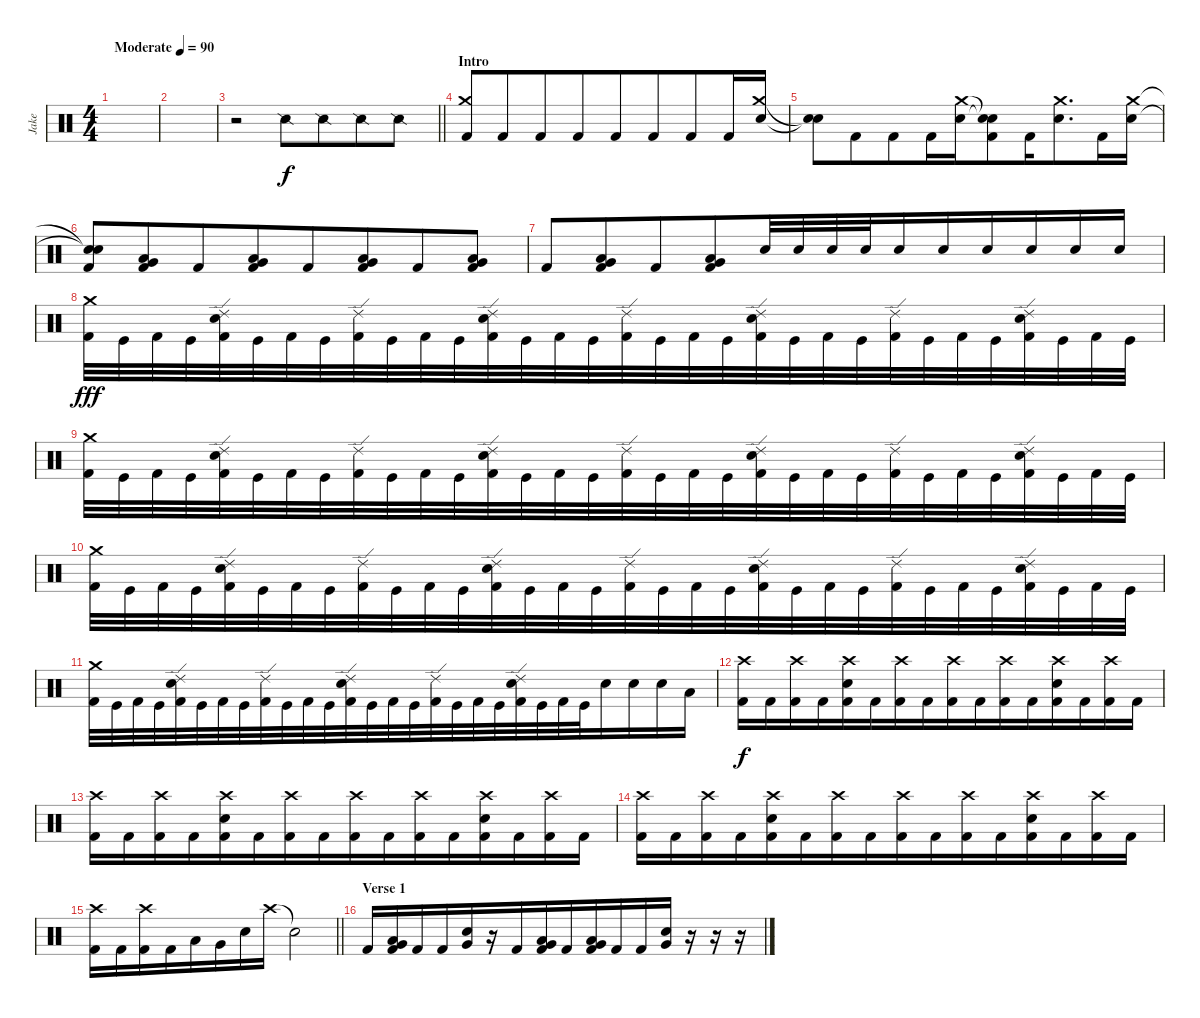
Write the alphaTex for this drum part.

\track ("Jake" "Jake") {instrument percussion}
\staff {score}
\articulation defaults
\ts (4 4)
\tempo (90 "Moderate")
\clef neutral
\ks c
|
|
\barLineRight lightlight
r.2 "Snare (side stick) 2".8{beam merge} "Snare (side stick) 2".8{beam merge} "Snare (side stick) 2".8{beam merge} "Snare (side stick) 2".8 |
\section ("" "Intro")
("Crash medium (hit)" "Kick (hit) 2").8{beam merge} "Kick (hit) 2".8{beam merge} "Kick (hit) 2".8{beam Up beam merge} "Kick (hit) 2".8{beam Up beam merge} "Kick (hit) 2".8{beam Up beam merge} "Kick (hit) 2".8{beam Up beam merge} "Kick (hit) 2".8{beam merge} "Kick (hit) 2".16{beam merge} ("Crash medium (hit)" "Electric Snare (hit)").16 |
("Snare (hit)"{t} "Snare (hit)"{t}).8{beam merge} "Kick (hit) 2".8{beam merge} "Kick (hit) 2".8{beam merge} "Kick (hit) 2".16{beam merge} ("Crash medium (hit)" "Electric Snare (hit)").16{beam merge} ("Snare (hit)"{t} "Snare (hit)"{t} "Kick (hit) 2").8{beam merge} "Kick (hit) 2".16{beam merge} ("Crash medium (hit)" "Electric Snare (hit)").8{d beam merge} "Kick (hit) 2".16{beam merge} ("Crash medium (hit)" "Electric Snare (hit)").16 |
("Snare (hit)"{t} "Snare (hit)"{t} "Kick (hit) 2").8{beam merge} ("Low Floor Tom (hit)" "Very Low Tom (hit)" "Kick (hit) 2").8{beam merge} "Kick (hit) 2".8{beam Up beam merge} ("Low Floor Tom (hit)" "Very Low Tom (hit)" "Kick (hit) 2").8{beam Up beam merge} "Kick (hit) 2".8{beam Up beam merge} ("Low Floor Tom (hit)" "Very Low Tom (hit)" "Kick (hit) 2").8{beam Up beam merge} "Kick (hit) 2".8{beam Up beam merge} ("Low Floor Tom (hit)" "Very Low Tom (hit)" "Kick (hit) 2").8{beam Up} |
"Kick (hit) 2".8{beam Up beam merge} ("Low Floor Tom (hit)" "Very Low Tom (hit)" "Kick (hit) 2").8{beam Up beam merge} "Kick (hit) 2".8{beam Up beam merge} ("Low Floor Tom (hit)" "Very Low Tom (hit)" "Kick (hit) 2").8{beam Up beam merge} "Electric Snare (hit)".32{beam merge} "Electric Snare (hit)".32{beam merge} "Electric Snare (hit)".32{beam merge} "Electric Snare (hit)".32{beam merge} "Electric Snare (hit)".16{beam merge} "Electric Snare (hit)".16{beam merge} "Electric Snare (hit)".16{beam merge} "Electric Snare (hit)".16{beam merge} "Electric Snare (hit)".16{beam merge} "Electric Snare (hit)".16 |
("Crash medium (hit)" "Kick (hit) 2").32{dy fff beam merge} "Kick (hit)".32{beam merge} "Kick (hit) 2".32{beam merge} "Kick (hit)".32{beam merge} ("Ride (edge) 2" "Electric Snare (hit)" "Kick (hit) 2").32{beam merge} "Kick (hit)".32{beam merge} "Kick (hit) 2".32{beam merge} "Kick (hit)".32{beam merge} ("Ride (edge) 2" "Kick (hit) 2").32{beam merge} "Kick (hit)".32{beam merge} "Kick (hit) 2".32{beam merge} "Kick (hit)".32{beam merge} ("Ride (edge) 2" "Electric Snare (hit)" "Kick (hit) 2").32{beam merge} "Kick (hit)".32{beam merge} "Kick (hit) 2".32{beam merge} "Kick (hit)".32{beam merge} ("Ride (edge) 2" "Kick (hit) 2").32{beam merge} "Kick (hit)".32{beam merge} "Kick (hit) 2".32{beam merge} "Kick (hit)".32{beam merge} ("Ride (edge) 2" "Electric Snare (hit)" "Kick (hit) 2").32{beam merge} "Kick (hit)".32{beam merge} "Kick (hit) 2".32{beam merge} "Kick (hit)".32{beam merge} ("Ride (edge) 2" "Kick (hit) 2").32{beam merge} "Kick (hit)".32{beam merge} "Kick (hit) 2".32{beam merge} "Kick (hit)".32{beam merge} ("Ride (edge) 2" "Electric Snare (hit)" "Kick (hit) 2").32{beam merge} "Kick (hit)".32{beam merge} "Kick (hit) 2".32{beam merge} "Kick (hit)".32 |
("Crash medium (hit)" "Kick (hit) 2").32{beam merge} "Kick (hit)".32{beam merge} "Kick (hit) 2".32{beam merge} "Kick (hit)".32{beam merge} ("Ride (edge) 2" "Electric Snare (hit)" "Kick (hit) 2").32{beam merge} "Kick (hit)".32{beam merge} "Kick (hit) 2".32{beam merge} "Kick (hit)".32{beam merge} ("Ride (edge) 2" "Kick (hit) 2").32{beam merge} "Kick (hit)".32{beam merge} "Kick (hit) 2".32{beam merge} "Kick (hit)".32{beam merge} ("Ride (edge) 2" "Electric Snare (hit)" "Kick (hit) 2").32{beam merge} "Kick (hit)".32{beam merge} "Kick (hit) 2".32{beam merge} "Kick (hit)".32{beam merge} ("Ride (edge) 2" "Kick (hit) 2").32{beam merge} "Kick (hit)".32{beam merge} "Kick (hit) 2".32{beam merge} "Kick (hit)".32{beam merge} ("Ride (edge) 2" "Electric Snare (hit)" "Kick (hit) 2").32{beam merge} "Kick (hit)".32{beam merge} "Kick (hit) 2".32{beam merge} "Kick (hit)".32{beam merge} ("Ride (edge) 2" "Kick (hit) 2").32{beam merge} "Kick (hit)".32{beam merge} "Kick (hit) 2".32{beam merge} "Kick (hit)".32{beam merge} ("Ride (edge) 2" "Electric Snare (hit)" "Kick (hit) 2").32{beam merge} "Kick (hit)".32{beam merge} "Kick (hit) 2".32{beam merge} "Kick (hit)".32 |
("Crash medium (hit)" "Kick (hit) 2").32{beam merge} "Kick (hit)".32{beam merge} "Kick (hit) 2".32{beam merge} "Kick (hit)".32{beam merge} ("Ride (edge) 2" "Electric Snare (hit)" "Kick (hit) 2").32{beam merge} "Kick (hit)".32{beam merge} "Kick (hit) 2".32{beam merge} "Kick (hit)".32{beam merge} ("Ride (edge) 2" "Kick (hit) 2").32{beam merge} "Kick (hit)".32{beam merge} "Kick (hit) 2".32{beam merge} "Kick (hit)".32{beam merge} ("Ride (edge) 2" "Electric Snare (hit)" "Kick (hit) 2").32{beam merge} "Kick (hit)".32{beam merge} "Kick (hit) 2".32{beam merge} "Kick (hit)".32{beam merge} ("Ride (edge) 2" "Kick (hit) 2").32{beam merge} "Kick (hit)".32{beam merge} "Kick (hit) 2".32{beam merge} "Kick (hit)".32{beam merge} ("Ride (edge) 2" "Electric Snare (hit)" "Kick (hit) 2").32{beam merge} "Kick (hit)".32{beam merge} "Kick (hit) 2".32{beam merge} "Kick (hit)".32{beam merge} ("Ride (edge) 2" "Kick (hit) 2").32{beam merge} "Kick (hit)".32{beam merge} "Kick (hit) 2".32{beam merge} "Kick (hit)".32{beam merge} ("Ride (edge) 2" "Electric Snare (hit)" "Kick (hit) 2").32{beam merge} "Kick (hit)".32{beam merge} "Kick (hit) 2".32{beam merge} "Kick (hit)".32 |
("Crash medium (hit)" "Kick (hit) 2").32{beam merge} "Kick (hit)".32{beam merge} "Kick (hit) 2".32{beam merge} "Kick (hit)".32{beam merge} ("Ride (edge) 2" "Electric Snare (hit)" "Kick (hit) 2").32{beam merge} "Kick (hit)".32{beam merge} "Kick (hit) 2".32{beam merge} "Kick (hit)".32{beam merge} ("Ride (edge) 2" "Kick (hit) 2").32{beam merge} "Kick (hit)".32{beam merge} "Kick (hit) 2".32{beam merge} "Kick (hit)".32{beam merge} ("Ride (edge) 2" "Electric Snare (hit)" "Kick (hit) 2").32{beam merge} "Kick (hit)".32{beam merge} "Kick (hit) 2".32{beam merge} "Kick (hit)".32{beam merge} ("Ride (edge) 2" "Kick (hit) 2").32{beam merge} "Kick (hit)".32{beam merge} "Kick (hit) 2".32{beam merge} "Kick (hit)".32{beam merge} ("Ride (edge) 2" "Electric Snare (hit)" "Kick (hit) 2").32{beam merge} "Kick (hit)".32{beam merge} "Kick (hit) 2".32{beam merge} "Kick (hit)".32{beam merge} "Electric Snare (hit)".16{beam merge} "Electric Snare (hit)".16{beam merge} "Electric Snare (hit)".16 "Low Floor Tom (hit)".16 |
("Crash high (hit)" "Kick (hit) 2").16{dy f beam merge} "Kick (hit) 2".16{beam merge} ("Crash high (hit)" "Kick (hit) 2").16{beam merge} "Kick (hit) 2".16{beam merge} ("Crash high (hit)" "Electric Snare (hit)" "Kick (hit) 2").16{beam merge} "Kick (hit) 2".16{beam merge} ("Crash high (hit)" "Kick (hit) 2").16{beam merge} "Kick (hit) 2".16{beam merge} ("Crash high (hit)" "Kick (hit) 2").16{beam merge} "Kick (hit) 2".16{beam merge} ("Crash high (hit)" "Kick (hit) 2").16{beam merge} "Kick (hit) 2".16{beam merge} ("Crash high (hit)" "Electric Snare (hit)" "Kick (hit) 2").16{beam merge} "Kick (hit) 2".16{beam merge} ("Crash high (hit)" "Kick (hit) 2").16{beam merge} "Kick (hit) 2".16 |
("Crash high (hit)" "Kick (hit) 2").16{beam merge} "Kick (hit) 2".16{beam merge} ("Crash high (hit)" "Kick (hit) 2").16{beam merge} "Kick (hit) 2".16{beam merge} ("Crash high (hit)" "Electric Snare (hit)" "Kick (hit) 2").16{beam merge} "Kick (hit) 2".16{beam merge} ("Crash high (hit)" "Kick (hit) 2").16{beam merge} "Kick (hit) 2".16{beam merge} ("Crash high (hit)" "Kick (hit) 2").16{beam merge} "Kick (hit) 2".16{beam merge} ("Crash high (hit)" "Kick (hit) 2").16{beam merge} "Kick (hit) 2".16{beam merge} ("Crash high (hit)" "Electric Snare (hit)" "Kick (hit) 2").16{beam merge} "Kick (hit) 2".16{beam merge} ("Crash high (hit)" "Kick (hit) 2").16{beam merge} "Kick (hit) 2".16 |
("Crash high (hit)" "Kick (hit) 2").16{beam merge} "Kick (hit) 2".16{beam merge} ("Crash high (hit)" "Kick (hit) 2").16{beam merge} "Kick (hit) 2".16{beam merge} ("Crash high (hit)" "Electric Snare (hit)" "Kick (hit) 2").16{beam merge} "Kick (hit) 2".16{beam merge} ("Crash high (hit)" "Kick (hit) 2").16{beam merge} "Kick (hit) 2".16{beam merge} ("Crash high (hit)" "Kick (hit) 2").16{beam merge} "Kick (hit) 2".16{beam merge} ("Crash high (hit)" "Kick (hit) 2").16{beam merge} "Kick (hit) 2".16{beam merge} ("Crash high (hit)" "Electric Snare (hit)" "Kick (hit) 2").16{beam merge} "Kick (hit) 2".16{beam merge} ("Crash high (hit)" "Kick (hit) 2").16{beam merge} "Kick (hit) 2".16 |
\barLineRight lightlight
("Crash high (hit)" "Kick (hit) 2").16{beam merge} "Kick (hit) 2".16{beam merge} ("Crash high (hit)" "Kick (hit) 2").16{beam merge} "Kick (hit) 2".16{beam merge} "Low Tom (hit)".16{beam merge} "Very Low Tom (hit)".16{beam merge} "Electric Snare (hit)".16{beam merge} "Crash high (hit)".16 "Snare (hit)"{t}.2 |
\section ("" "Verse 1")
"Kick (hit) 2".16{beam Up beam merge} ("Low Tom (hit)" "Very Low Tom (hit)" "Kick (hit) 2").16{beam Up beam merge} "Kick (hit) 2".16{beam Up beam merge} "Kick (hit) 2".16{beam Up beam merge} ("Electric Snare (hit)" "Very Low Tom (hit)").16 r.16 "Kick (hit) 2".16{beam Up beam merge} ("Low Tom (hit)" "Very Low Tom (hit)" "Kick (hit) 2").16{beam Up beam merge} "Kick (hit) 2".16{beam Up beam merge} ("Very Low Tom (hit)" "Low Floor Tom (hit)" "Kick (hit) 2").16{beam Up beam merge} "Kick (hit) 2".16{beam Up beam merge} "Kick (hit) 2".16{beam Up beam merge} ("Electric Snare (hit)" "Very Low Tom (hit)").16 r.16 r.16 r.16
